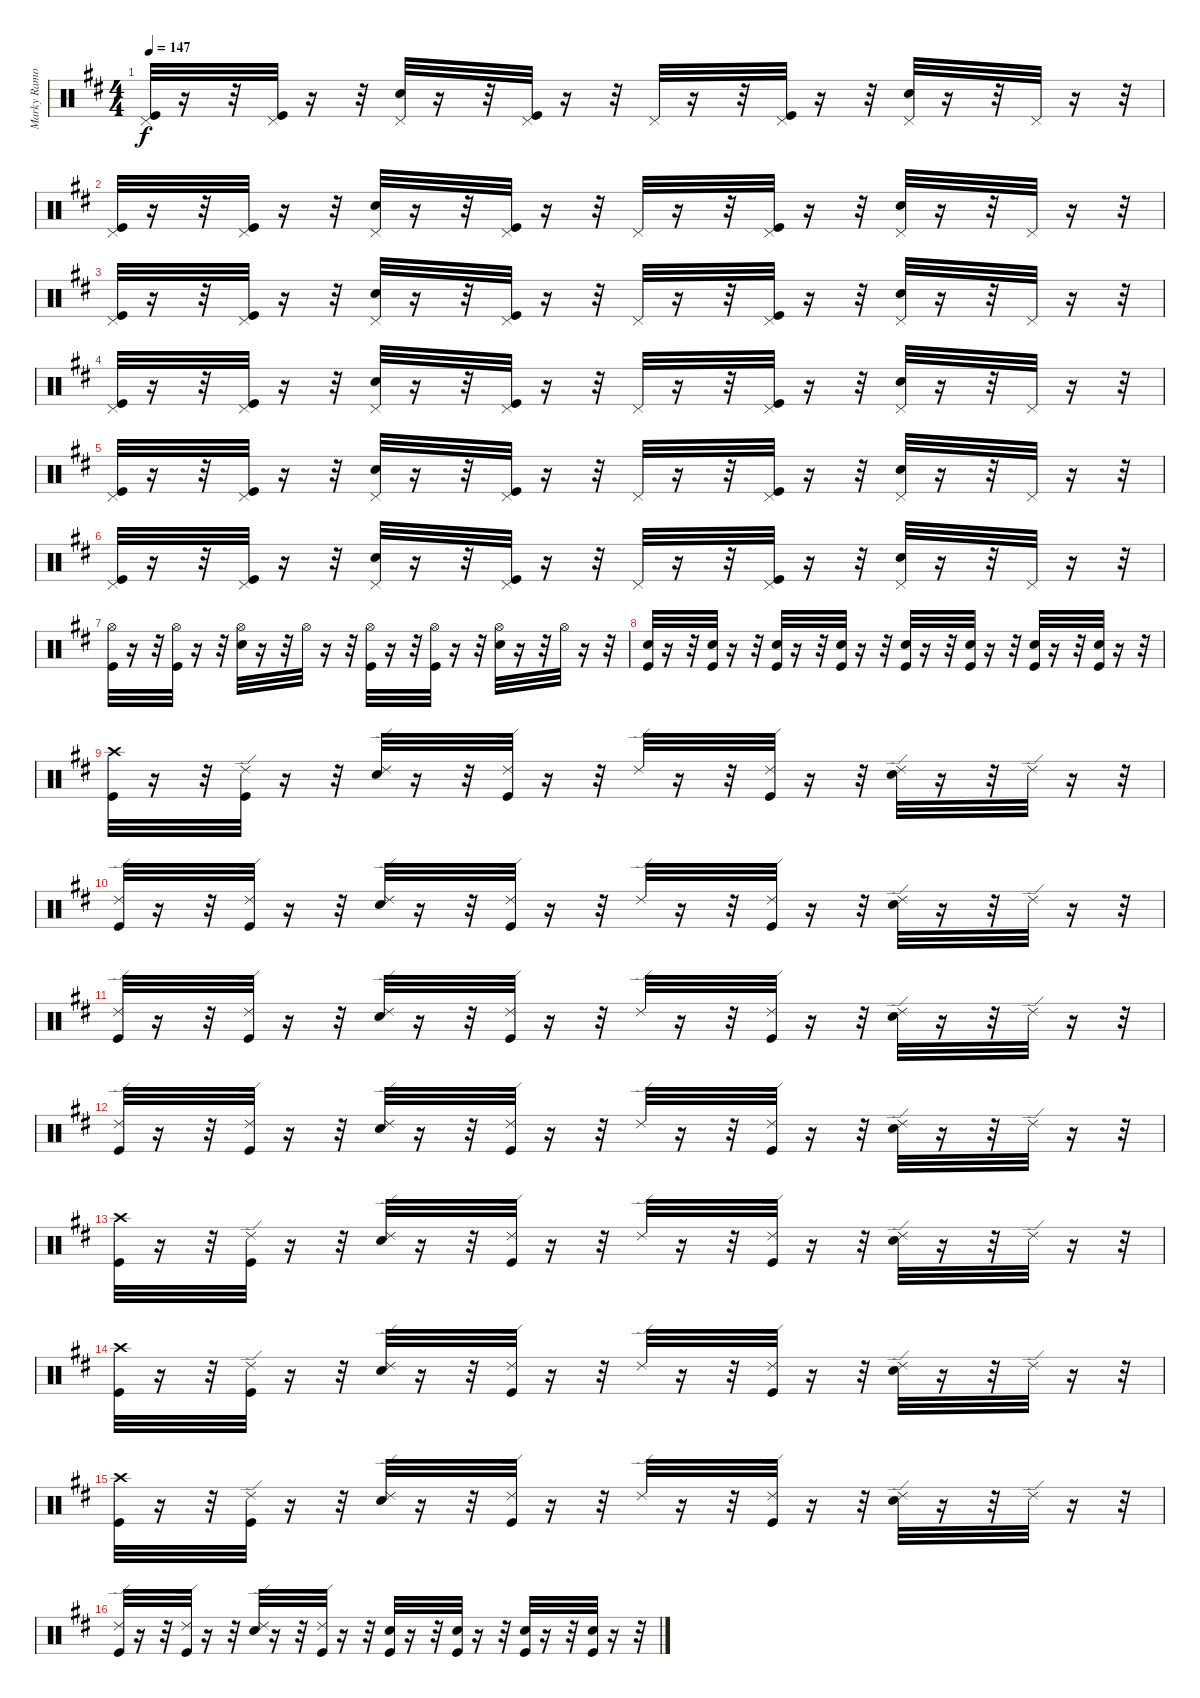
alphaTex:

\track ("Marky Ramone" "Marky Ramo") {instrument percussion}
\staff {score}
\articulation defaults
\ts (4 4)
\tempo 147
\clef neutral
\ks d
("Pedal Hi-Hat (hit)" "Kick (hit)").32{dy f} r.16 r.32 ("Pedal Hi-Hat (hit)" "Kick (hit)").32 r.16 r.32 ("Pedal Hi-Hat (hit)" "Electric Snare (hit)").32 r.16 r.32 ("Pedal Hi-Hat (hit)" "Kick (hit)").32 r.16 r.32 "Pedal Hi-Hat (hit)".32 r.16 r.32 ("Pedal Hi-Hat (hit)" "Kick (hit)").32 r.16 r.32 ("Pedal Hi-Hat (hit)" "Electric Snare (hit)").32 r.16 r.32 "Pedal Hi-Hat (hit)".32 r.16 r.32 |
("Pedal Hi-Hat (hit)" "Kick (hit)").32 r.16 r.32 ("Pedal Hi-Hat (hit)" "Kick (hit)").32 r.16 r.32 ("Pedal Hi-Hat (hit)" "Electric Snare (hit)").32 r.16 r.32 ("Pedal Hi-Hat (hit)" "Kick (hit)").32 r.16 r.32 "Pedal Hi-Hat (hit)".32 r.16 r.32 ("Pedal Hi-Hat (hit)" "Kick (hit)").32 r.16 r.32 ("Pedal Hi-Hat (hit)" "Electric Snare (hit)").32 r.16 r.32 "Pedal Hi-Hat (hit)".32 r.16 r.32 |
("Pedal Hi-Hat (hit)" "Kick (hit)").32 r.16 r.32 ("Pedal Hi-Hat (hit)" "Kick (hit)").32 r.16 r.32 ("Pedal Hi-Hat (hit)" "Electric Snare (hit)").32 r.16 r.32 ("Pedal Hi-Hat (hit)" "Kick (hit)").32 r.16 r.32 "Pedal Hi-Hat (hit)".32 r.16 r.32 ("Pedal Hi-Hat (hit)" "Kick (hit)").32 r.16 r.32 ("Pedal Hi-Hat (hit)" "Electric Snare (hit)").32 r.16 r.32 "Pedal Hi-Hat (hit)".32 r.16 r.32 |
("Pedal Hi-Hat (hit)" "Kick (hit)").32 r.16 r.32 ("Pedal Hi-Hat (hit)" "Kick (hit)").32 r.16 r.32 ("Pedal Hi-Hat (hit)" "Electric Snare (hit)").32 r.16 r.32 ("Pedal Hi-Hat (hit)" "Kick (hit)").32 r.16 r.32 "Pedal Hi-Hat (hit)".32 r.16 r.32 ("Pedal Hi-Hat (hit)" "Kick (hit)").32 r.16 r.32 ("Pedal Hi-Hat (hit)" "Electric Snare (hit)").32 r.16 r.32 "Pedal Hi-Hat (hit)".32 r.16 r.32 |
("Pedal Hi-Hat (hit)" "Kick (hit)").32 r.16 r.32 ("Pedal Hi-Hat (hit)" "Kick (hit)").32 r.16 r.32 ("Pedal Hi-Hat (hit)" "Electric Snare (hit)").32 r.16 r.32 ("Pedal Hi-Hat (hit)" "Kick (hit)").32 r.16 r.32 "Pedal Hi-Hat (hit)".32 r.16 r.32 ("Pedal Hi-Hat (hit)" "Kick (hit)").32 r.16 r.32 ("Pedal Hi-Hat (hit)" "Electric Snare (hit)").32 r.16 r.32 "Pedal Hi-Hat (hit)".32 r.16 r.32 |
("Pedal Hi-Hat (hit)" "Kick (hit)").32 r.16 r.32 ("Pedal Hi-Hat (hit)" "Kick (hit)").32 r.16 r.32 ("Pedal Hi-Hat (hit)" "Electric Snare (hit)").32 r.16 r.32 ("Pedal Hi-Hat (hit)" "Kick (hit)").32 r.16 r.32 "Pedal Hi-Hat (hit)".32 r.16 r.32 ("Pedal Hi-Hat (hit)" "Kick (hit)").32 r.16 r.32 ("Pedal Hi-Hat (hit)" "Electric Snare (hit)").32 r.16 r.32 "Pedal Hi-Hat (hit)".32 r.16 r.32 |
("Hi-Hat (open)" "Kick (hit)").32 r.16 r.32 ("Hi-Hat (open)" "Kick (hit)").32 r.16 r.32 ("Hi-Hat (open)" "Electric Snare (hit)").32 r.16 r.32 "Hi-Hat (open)".32 r.16 r.32 ("Hi-Hat (open)" "Kick (hit)").32 r.16 r.32 ("Hi-Hat (open)" "Kick (hit)").32 r.16 r.32 ("Hi-Hat (open)" "Electric Snare (hit)").32 r.16 r.32 "Hi-Hat (open)".32 r.16 r.32 |
("Kick (hit)" "Electric Snare (hit)").32 r.16 r.32 ("Kick (hit)" "Electric Snare (hit)").32 r.16 r.32 ("Kick (hit)" "Electric Snare (hit)").32 r.16 r.32 ("Kick (hit)" "Electric Snare (hit)").32 r.16 r.32 ("Kick (hit)" "Electric Snare (hit)").32 r.16 r.32 ("Kick (hit)" "Electric Snare (hit)").32 r.16 r.32 ("Kick (hit)" "Electric Snare (hit)").32 r.16 r.32 ("Kick (hit)" "Electric Snare (hit)").32 r.16 r.32 |
("Crash high (hit)" "Kick (hit)").32 r.16 r.32 ("Ride (edge) 2" "Kick (hit)").32 r.16 r.32 ("Ride (edge) 2" "Electric Snare (hit)").32 r.16 r.32 ("Ride (edge) 2" "Kick (hit)").32 r.16 r.32 "Ride (edge) 2".32 r.16 r.32 ("Ride (edge) 2" "Kick (hit)").32 r.16 r.32 ("Ride (edge) 2" "Electric Snare (hit)").32 r.16 r.32 "Ride (edge) 2".32 r.16 r.32 |
("Ride (edge) 2" "Kick (hit)").32 r.16 r.32 ("Ride (edge) 2" "Kick (hit)").32 r.16 r.32 ("Electric Snare (hit)" "Ride (edge) 2").32 r.16 r.32 ("Kick (hit)" "Ride (edge) 2").32 r.16 r.32 "Ride (edge) 2".32 r.16 r.32 ("Kick (hit)" "Ride (edge) 2").32 r.16 r.32 ("Ride (edge) 2" "Electric Snare (hit)").32 r.16 r.32 "Ride (edge) 2".32 r.16 r.32 |
("Ride (edge) 2" "Kick (hit)").32 r.16 r.32 ("Ride (edge) 2" "Kick (hit)").32 r.16 r.32 ("Ride (edge) 2" "Electric Snare (hit)").32 r.16 r.32 ("Ride (edge) 2" "Kick (hit)").32 r.16 r.32 "Ride (edge) 2".32 r.16 r.32 ("Ride (edge) 2" "Kick (hit)").32 r.16 r.32 ("Ride (edge) 2" "Electric Snare (hit)").32 r.16 r.32 "Ride (edge) 2".32 r.16 r.32 |
("Ride (edge) 2" "Kick (hit)").32 r.16 r.32 ("Ride (edge) 2" "Kick (hit)").32 r.16 r.32 ("Ride (edge) 2" "Electric Snare (hit)").32 r.16 r.32 ("Ride (edge) 2" "Kick (hit)").32 r.16 r.32 "Ride (edge) 2".32 r.16 r.32 ("Ride (edge) 2" "Kick (hit)").32 r.16 r.32 ("Ride (edge) 2" "Electric Snare (hit)").32 r.16 r.32 "Ride (edge) 2".32 r.16 r.32 |
("Kick (hit)" "Crash high (hit)").32 r.16 r.32 ("Ride (edge) 2" "Kick (hit)").32 r.16 r.32 ("Ride (edge) 2" "Electric Snare (hit)").32 r.16 r.32 ("Ride (edge) 2" "Kick (hit)").32 r.16 r.32 "Ride (edge) 2".32 r.16 r.32 ("Ride (edge) 2" "Kick (hit)").32 r.16 r.32 ("Ride (edge) 2" "Electric Snare (hit)").32 r.16 r.32 "Ride (edge) 2".32 r.16 r.32 |
("Crash high (hit)" "Kick (hit)").32 r.16 r.32 ("Ride (edge) 2" "Kick (hit)").32 r.16 r.32 ("Ride (edge) 2" "Electric Snare (hit)").32 r.16 r.32 ("Ride (edge) 2" "Kick (hit)").32 r.16 r.32 "Ride (edge) 2".32 r.16 r.32 ("Ride (edge) 2" "Kick (hit)").32 r.16 r.32 ("Ride (edge) 2" "Electric Snare (hit)").32 r.16 r.32 "Ride (edge) 2".32 r.16 r.32 |
("Kick (hit)" "Crash high (hit)").32 r.16 r.32 ("Ride (edge) 2" "Kick (hit)").32 r.16 r.32 ("Ride (edge) 2" "Electric Snare (hit)").32 r.16 r.32 ("Ride (edge) 2" "Kick (hit)").32 r.16 r.32 "Ride (edge) 2".32 r.16 r.32 ("Ride (edge) 2" "Kick (hit)").32 r.16 r.32 ("Ride (edge) 2" "Electric Snare (hit)").32 r.16 r.32 "Ride (edge) 2".32 r.16 r.32 |
("Ride (edge) 2" "Kick (hit)").32 r.16 r.32 ("Ride (edge) 2" "Kick (hit)").32 r.16 r.32 ("Ride (edge) 2" "Electric Snare (hit)").32 r.16 r.32 ("Ride (edge) 2" "Kick (hit)").32 r.16 r.32 ("Kick (hit)" "Electric Snare (hit)").32 r.16 r.32 ("Kick (hit)" "Electric Snare (hit)").32 r.16 r.32 ("Kick (hit)" "Electric Snare (hit)").32 r.16 r.32 ("Kick (hit)" "Electric Snare (hit)").32 r.16 r.32
